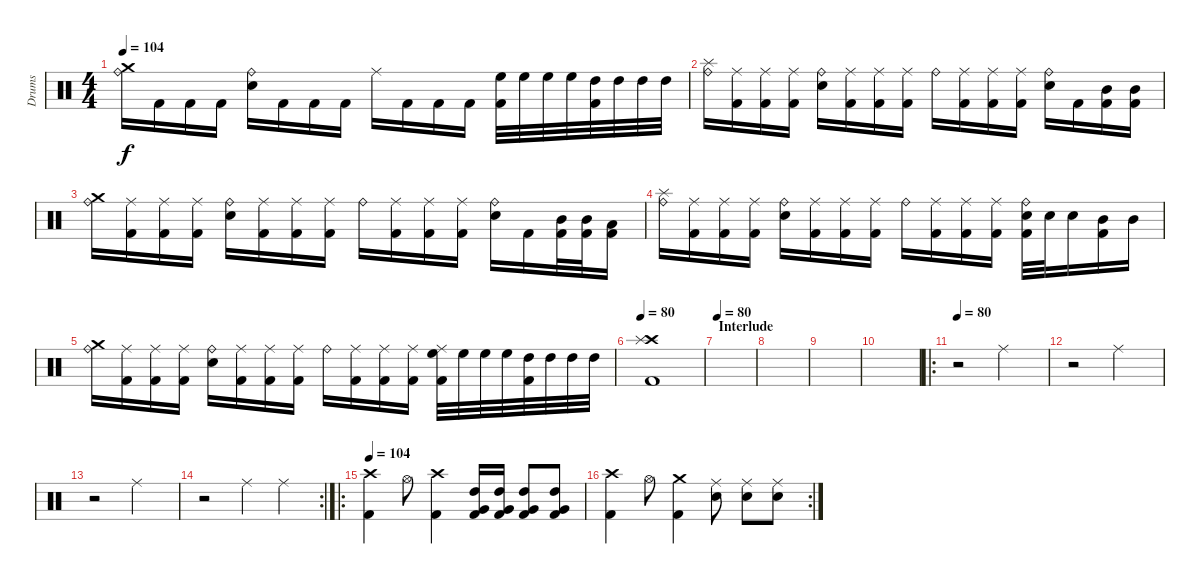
\track ("Drums" "Drums") {instrument percussion}
\staff {score}
\articulation defaults
\ts (4 4)
\tempo 104
\clef neutral
\ks c
("Ride (bell)" "Crash medium (hit)").16{dy f} "Kick (hit) 2".16 "Kick (hit) 2".16 "Kick (hit) 2".16 ("Ride (bell)" "Snare (hit) 2").16 "Kick (hit) 2".16 "Kick (hit) 2".16 "Kick (hit) 2".16 "Ride (middle)".16 "Kick (hit) 2".16 "Kick (hit) 2".16 "Kick (hit) 2".16 ("High Floor Tom (hit)" "Kick (hit) 2").32 "High Floor Tom (hit)".32 "High Floor Tom (hit)".32 "High Floor Tom (hit)".32 ("High Tom (hit)" "Kick (hit) 2").32 "High Tom (hit)".32 "High Tom (hit)".32 "High Tom (hit)".32 |
("Ride (bell)" "Splash (hit)").16 ("Ride (middle)" "Kick (hit) 2").16 ("Ride (middle)" "Kick (hit) 2").16 ("Ride (middle)" "Kick (hit) 2").16 ("Ride (bell)" "Snare (hit) 2").16 ("Ride (middle)" "Kick (hit) 2").16 ("Ride (middle)" "Kick (hit) 2").16 ("Ride (middle)" "Kick (hit) 2").16 "Ride (bell)".16 ("Ride (middle)" "Kick (hit) 2").16 ("Ride (middle)" "Kick (hit) 2").16 ("Ride (middle)" "Kick (hit) 2").16 ("Ride (bell)" "Snare (hit) 2").16 "Kick (hit) 2".16 ("Mid Tom (hit)" "Kick (hit) 2").16 ("Mid Tom (hit)" "Kick (hit) 2").16 |
("Ride (bell)" "Crash medium (hit)").16 ("Ride (middle)" "Kick (hit) 2").16 ("Ride (middle)" "Kick (hit) 2").16 ("Ride (middle)" "Kick (hit) 2").16 ("Ride (bell)" "Snare (hit) 2").16 ("Ride (middle)" "Kick (hit) 2").16 ("Ride (middle)" "Kick (hit) 2").16 ("Ride (middle)" "Kick (hit) 2").16 "Ride (bell)".16 ("Ride (middle)" "Kick (hit) 2").16 ("Ride (middle)" "Kick (hit) 2").16 ("Ride (middle)" "Kick (hit) 2").16 ("Ride (bell)" "Snare (hit) 2").16 "Kick (hit) 2".16 ("Mid Tom (hit)" "Kick (hit) 2").32 ("Mid Tom (hit)" "Kick (hit) 2").32 ("Low Tom (hit)" "Kick (hit) 2").16 |
("Ride (bell)" "Splash (hit)").16 ("Ride (middle)" "Kick (hit) 2").16 ("Ride (middle)" "Kick (hit) 2").16 ("Ride (middle)" "Kick (hit) 2").16 ("Ride (bell)" "Snare (hit) 2").16 ("Ride (middle)" "Kick (hit) 2").16 ("Ride (middle)" "Kick (hit) 2").16 ("Ride (middle)" "Kick (hit) 2").16 "Ride (bell)".16 ("Ride (middle)" "Kick (hit) 2").16 ("Ride (middle)" "Kick (hit) 2").16 ("Ride (middle)" "Kick (hit) 2").16 ("Ride (bell)" "Snare (hit) 2" "Kick (hit) 2").32 "Snare (hit) 2".32 "Snare (hit) 2".16 ("Mid Tom (hit)" "Kick (hit) 2").16 "Mid Tom (hit)".16 |
("Ride (bell)" "Crash medium (hit)").16 ("Ride (middle)" "Kick (hit) 2").16 ("Ride (middle)" "Kick (hit) 2").16 ("Ride (middle)" "Kick (hit) 2").16 ("Ride (bell)" "Snare (hit) 2").16 ("Ride (middle)" "Kick (hit) 2").16 ("Ride (middle)" "Kick (hit) 2").16 ("Ride (middle)" "Kick (hit) 2").16 "Ride (bell)".16 ("Ride (middle)" "Kick (hit) 2").16 ("Ride (middle)" "Kick (hit) 2").16 ("Ride (middle)" "Kick (hit) 2").16 ("Ride (middle)" "High Floor Tom (hit)" "Kick (hit) 2").32 "High Floor Tom (hit)".32 "High Floor Tom (hit)".32 "High Floor Tom (hit)".32 ("High Tom (hit)" "Kick (hit) 2").32 "High Tom (hit)".32 "High Tom (hit)".32 "High Tom (hit)".32 |
\tempo 80
("Crash high (hit)" "Splash (hit)" "Kick (hit) 2").1 |
\section ("" "Interlude")
\tempo 80
|
|
|
|
\ro
\tempo 80
r.2 "Ride (middle)".2 |
r.2 "Ride (middle)".2 |
r.2 "Ride (middle)".2 |
\rc 2
r.2 "Ride (middle)".4 "Ride (middle)".4 |
\ro
\tempo 104
("Crash high (hit)" "Kick (hit) 2").4 "Hi-Hat (open)".8 ("Crash high (hit)" "Kick (hit) 2").4 ("High Tom (hit)" "Very Low Tom (hit)" "Kick (hit) 2").16 ("High Tom (hit)" "Very Low Tom (hit)" "Kick (hit) 2").16 ("High Tom (hit)" "Very Low Tom (hit)" "Kick (hit) 2").8 ("High Tom (hit)" "Very Low Tom (hit)" "Kick (hit) 2").8 |
\rc 2
("Crash high (hit)" "Kick (hit) 2").4 "Hi-Hat (open)".8 ("Crash medium (hit)" "Kick (hit) 2").4 ("Snare (hit) 2" "Ride (middle)").8 ("Snare (hit) 2" "Ride (middle)").8 ("Snare (hit) 2" "Ride (middle)").8
